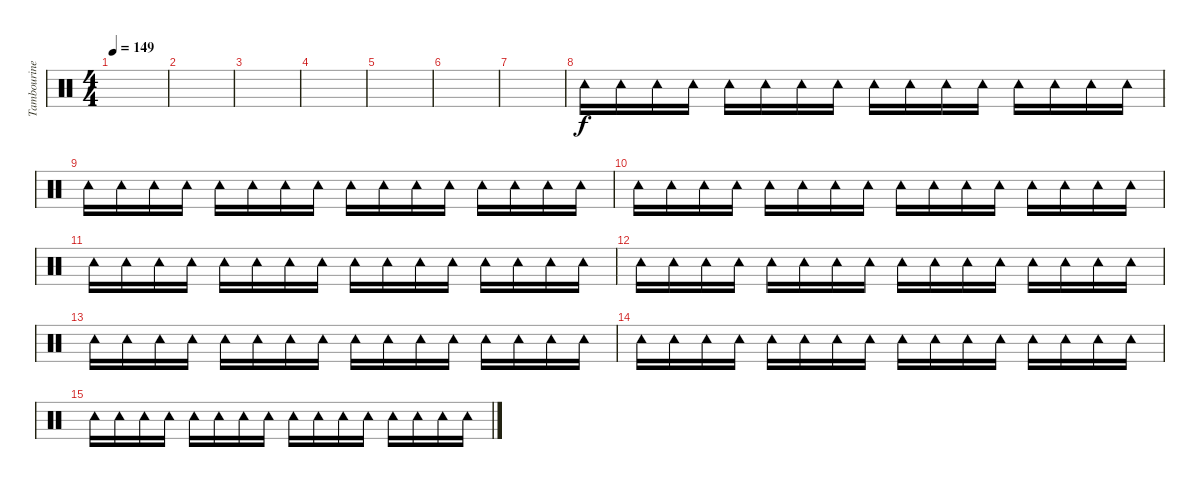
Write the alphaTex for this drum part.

\track ("Tambourine" "Tambourine") {instrument percussion}
\staff {score}
\articulation defaults
\ts (4 4)
\tempo 149
\clef neutral
\ks c
|
|
|
|
|
|
|
"Tambourine (hit)".16 "Tambourine (hit)".16 "Tambourine (hit)".16 "Tambourine (hit)".16 "Tambourine (hit)".16 "Tambourine (hit)".16 "Tambourine (hit)".16 "Tambourine (hit)".16 "Tambourine (hit)".16 "Tambourine (hit)".16 "Tambourine (hit)".16 "Tambourine (hit)".16 "Tambourine (hit)".16 "Tambourine (hit)".16 "Tambourine (hit)".16 "Tambourine (hit)".16 |
"Tambourine (hit)".16 "Tambourine (hit)".16 "Tambourine (hit)".16 "Tambourine (hit)".16 "Tambourine (hit)".16 "Tambourine (hit)".16 "Tambourine (hit)".16 "Tambourine (hit)".16 "Tambourine (hit)".16 "Tambourine (hit)".16 "Tambourine (hit)".16 "Tambourine (hit)".16 "Tambourine (hit)".16 "Tambourine (hit)".16 "Tambourine (hit)".16 "Tambourine (hit)".16 |
"Tambourine (hit)".16 "Tambourine (hit)".16 "Tambourine (hit)".16 "Tambourine (hit)".16 "Tambourine (hit)".16 "Tambourine (hit)".16 "Tambourine (hit)".16 "Tambourine (hit)".16 "Tambourine (hit)".16 "Tambourine (hit)".16 "Tambourine (hit)".16 "Tambourine (hit)".16 "Tambourine (hit)".16 "Tambourine (hit)".16 "Tambourine (hit)".16 "Tambourine (hit)".16 |
"Tambourine (hit)".16 "Tambourine (hit)".16 "Tambourine (hit)".16 "Tambourine (hit)".16 "Tambourine (hit)".16 "Tambourine (hit)".16 "Tambourine (hit)".16 "Tambourine (hit)".16 "Tambourine (hit)".16 "Tambourine (hit)".16 "Tambourine (hit)".16 "Tambourine (hit)".16 "Tambourine (hit)".16 "Tambourine (hit)".16 "Tambourine (hit)".16 "Tambourine (hit)".16 |
"Tambourine (hit)".16 "Tambourine (hit)".16 "Tambourine (hit)".16 "Tambourine (hit)".16 "Tambourine (hit)".16 "Tambourine (hit)".16 "Tambourine (hit)".16 "Tambourine (hit)".16 "Tambourine (hit)".16 "Tambourine (hit)".16 "Tambourine (hit)".16 "Tambourine (hit)".16 "Tambourine (hit)".16 "Tambourine (hit)".16 "Tambourine (hit)".16 "Tambourine (hit)".16 |
"Tambourine (hit)".16 "Tambourine (hit)".16 "Tambourine (hit)".16 "Tambourine (hit)".16 "Tambourine (hit)".16 "Tambourine (hit)".16 "Tambourine (hit)".16 "Tambourine (hit)".16 "Tambourine (hit)".16 "Tambourine (hit)".16 "Tambourine (hit)".16 "Tambourine (hit)".16 "Tambourine (hit)".16 "Tambourine (hit)".16 "Tambourine (hit)".16 "Tambourine (hit)".16 |
"Tambourine (hit)".16 "Tambourine (hit)".16 "Tambourine (hit)".16 "Tambourine (hit)".16 "Tambourine (hit)".16 "Tambourine (hit)".16 "Tambourine (hit)".16 "Tambourine (hit)".16 "Tambourine (hit)".16 "Tambourine (hit)".16 "Tambourine (hit)".16 "Tambourine (hit)".16 "Tambourine (hit)".16 "Tambourine (hit)".16 "Tambourine (hit)".16 "Tambourine (hit)".16 |
"Tambourine (hit)".16 "Tambourine (hit)".16 "Tambourine (hit)".16 "Tambourine (hit)".16 "Tambourine (hit)".16 "Tambourine (hit)".16 "Tambourine (hit)".16 "Tambourine (hit)".16 "Tambourine (hit)".16 "Tambourine (hit)".16 "Tambourine (hit)".16 "Tambourine (hit)".16 "Tambourine (hit)".16 "Tambourine (hit)".16 "Tambourine (hit)".16 "Tambourine (hit)".16
